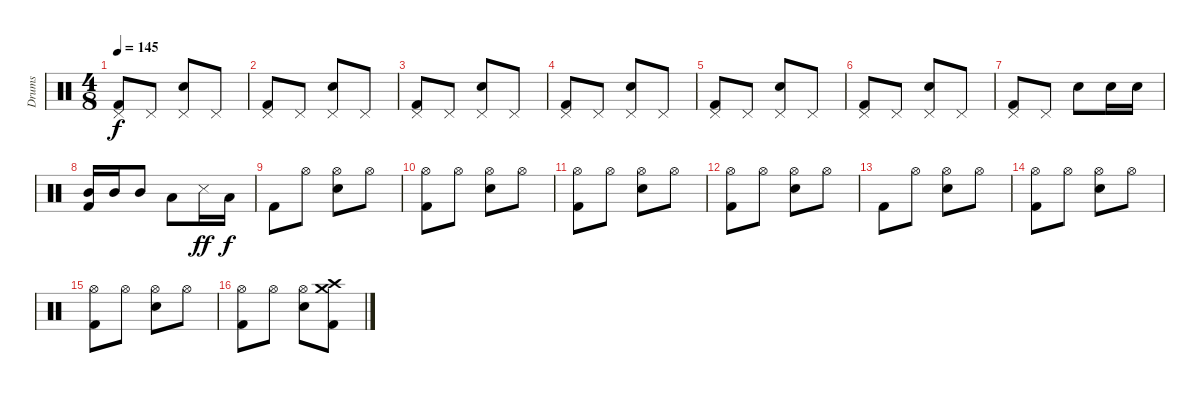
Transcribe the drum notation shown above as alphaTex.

\track ("Drums" "Drums") {instrument percussion}
\staff {score}
\articulation defaults
\ts (4 8)
\tempo 145
\clef neutral
\ks c
("Pedal Hi-Hat (hit)" "Kick (hit) 2").8{dy f} "Pedal Hi-Hat (hit)".8 ("Pedal Hi-Hat (hit)" "Snare (hit) 2").8 "Pedal Hi-Hat (hit)".8 |
("Pedal Hi-Hat (hit)" "Kick (hit) 2").8 "Pedal Hi-Hat (hit)".8 ("Pedal Hi-Hat (hit)" "Snare (hit) 2").8 "Pedal Hi-Hat (hit)".8 |
("Pedal Hi-Hat (hit)" "Kick (hit) 2").8 "Pedal Hi-Hat (hit)".8 ("Pedal Hi-Hat (hit)" "Snare (hit) 2").8 "Pedal Hi-Hat (hit)".8 |
("Pedal Hi-Hat (hit)" "Kick (hit) 2").8 "Pedal Hi-Hat (hit)".8 ("Pedal Hi-Hat (hit)" "Snare (hit) 2").8 "Pedal Hi-Hat (hit)".8 |
("Pedal Hi-Hat (hit)" "Kick (hit) 2").8 "Pedal Hi-Hat (hit)".8 ("Pedal Hi-Hat (hit)" "Snare (hit) 2").8 "Pedal Hi-Hat (hit)".8 |
("Pedal Hi-Hat (hit)" "Kick (hit) 2").8 "Pedal Hi-Hat (hit)".8 ("Pedal Hi-Hat (hit)" "Snare (hit) 2").8 "Pedal Hi-Hat (hit)".8 |
("Pedal Hi-Hat (hit)" "Kick (hit) 2").8 "Pedal Hi-Hat (hit)".8 "Snare (hit) 2".8 "Snare (hit) 2".16 "Snare (hit) 2".16 |
("Mid Tom (hit)" "Kick (hit) 2").16 "Mid Tom (hit)".16 "Mid Tom (hit)".8 "Low Floor Tom (hit)".8 "Snare (side stick) 3".16{dy ff} "Low Floor Tom (hit)".16{dy f} |
"Kick (hit) 2".8 "Hi-Hat (open)".8 ("Hi-Hat (open)" "Snare (hit) 2").8 "Hi-Hat (open)".8 |
("Hi-Hat (open)" "Kick (hit) 2").8 "Hi-Hat (open)".8 ("Hi-Hat (open)" "Snare (hit) 2").8 "Hi-Hat (open)".8 |
("Hi-Hat (open)" "Kick (hit) 2").8 "Hi-Hat (open)".8 ("Hi-Hat (open)" "Snare (hit) 2").8 "Hi-Hat (open)".8 |
("Hi-Hat (open)" "Kick (hit) 2").8 "Hi-Hat (open)".8 ("Hi-Hat (open)" "Snare (hit) 2").8 "Hi-Hat (open)".8 |
"Kick (hit) 2".8 "Hi-Hat (open)".8 ("Hi-Hat (open)" "Snare (hit) 2").8 "Hi-Hat (open)".8 |
("Hi-Hat (open)" "Kick (hit) 2").8 "Hi-Hat (open)".8 ("Hi-Hat (open)" "Snare (hit) 2").8 "Hi-Hat (open)".8 |
("Hi-Hat (open)" "Kick (hit) 2").8 "Hi-Hat (open)".8 ("Hi-Hat (open)" "Snare (hit) 2").8 "Hi-Hat (open)".8 |
("Hi-Hat (open)" "Kick (hit) 2").8 "Hi-Hat (open)".8 ("Hi-Hat (open)" "Snare (hit) 2").8 ("Crash medium (hit)" "Crash high (hit)" "Kick (hit) 2").8
